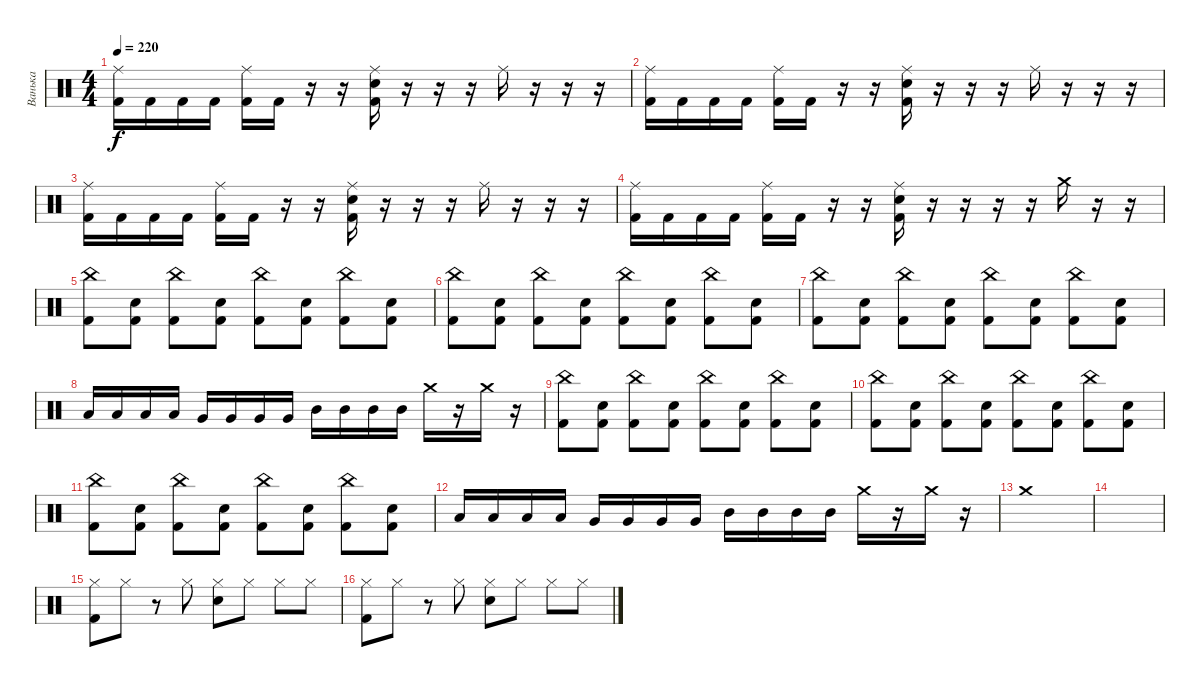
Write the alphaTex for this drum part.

\track ("Ванька" "Ванька") {instrument percussion}
\staff {score}
\articulation defaults
\ts (4 4)
\tempo 220
\clef neutral
\ks c
("Ride (middle)" "Kick (hit) 2").16{dy f} "Kick (hit) 2".16 "Kick (hit) 2".16 "Kick (hit) 2".16 ("Ride (middle)" "Kick (hit) 2").16 "Kick (hit) 2".16 r.16 r.16 ("Ride (middle)" "Snare (hit) 2" "Kick (hit) 2").16 r.16 r.16 r.16 "Ride (middle)".16 r.16 r.16 r.16 |
("Ride (middle)" "Kick (hit) 2").16 "Kick (hit) 2".16 "Kick (hit) 2".16 "Kick (hit) 2".16 ("Ride (middle)" "Kick (hit) 2").16 "Kick (hit) 2".16 r.16 r.16 ("Ride (middle)" "Snare (hit) 2" "Kick (hit) 2").16 r.16 r.16 r.16 "Ride (middle)".16 r.16 r.16 r.16 |
("Ride (middle)" "Kick (hit) 2").16 "Kick (hit) 2".16 "Kick (hit) 2".16 "Kick (hit) 2".16 ("Ride (middle)" "Kick (hit) 2").16 "Kick (hit) 2".16 r.16 r.16 ("Ride (middle)" "Snare (hit) 2" "Kick (hit) 2").16 r.16 r.16 r.16 "Ride (middle)".16 r.16 r.16 r.16 |
("Ride (middle)" "Kick (hit) 2").16 "Kick (hit) 2".16 "Kick (hit) 2".16 "Kick (hit) 2".16 ("Ride (middle)" "Kick (hit) 2").16 "Kick (hit) 2".16 r.16 r.16 ("Ride (middle)" "Snare (hit) 2" "Kick (hit) 2").16 r.16 r.16 r.16 r.16 "Crash medium (hit)".16 r.16 r.16 |
("China (hit)" "Kick (hit) 2").8 ("Snare (hit) 2" "Kick (hit) 2").8 ("China (hit)" "Kick (hit) 2").8 ("Snare (hit) 2" "Kick (hit) 2").8 ("China (hit)" "Kick (hit) 2").8 ("Snare (hit) 2" "Kick (hit) 2").8 ("China (hit)" "Kick (hit) 2").8 ("Snare (hit) 2" "Kick (hit) 2").8 |
("China (hit)" "Kick (hit) 2").8 ("Snare (hit) 2" "Kick (hit) 2").8 ("China (hit)" "Kick (hit) 2").8 ("Snare (hit) 2" "Kick (hit) 2").8 ("China (hit)" "Kick (hit) 2").8 ("Snare (hit) 2" "Kick (hit) 2").8 ("China (hit)" "Kick (hit) 2").8 ("Snare (hit) 2" "Kick (hit) 2").8 |
("China (hit)" "Kick (hit) 2").8 ("Snare (hit) 2" "Kick (hit) 2").8 ("China (hit)" "Kick (hit) 2").8 ("Snare (hit) 2" "Kick (hit) 2").8 ("China (hit)" "Kick (hit) 2").8 ("Snare (hit) 2" "Kick (hit) 2").8 ("China (hit)" "Kick (hit) 2").8 ("Snare (hit) 2" "Kick (hit) 2").8 |
"Low Floor Tom (hit)".16 "Low Floor Tom (hit)".16 "Low Floor Tom (hit)".16 "Low Floor Tom (hit)".16 "Very Low Tom (hit)".16 "Very Low Tom (hit)".16 "Very Low Tom (hit)".16 "Very Low Tom (hit)".16 "Mid Tom (hit)".16 "Mid Tom (hit)".16 "Mid Tom (hit)".16 "Mid Tom (hit)".16 "Crash medium (hit)".16 r.16 "Crash medium (hit)".16 r.16 |
("China (hit)" "Kick (hit) 2").8 ("Snare (hit) 2" "Kick (hit) 2").8 ("China (hit)" "Kick (hit) 2").8 ("Snare (hit) 2" "Kick (hit) 2").8 ("China (hit)" "Kick (hit) 2").8 ("Snare (hit) 2" "Kick (hit) 2").8 ("China (hit)" "Kick (hit) 2").8 ("Snare (hit) 2" "Kick (hit) 2").8 |
("China (hit)" "Kick (hit) 2").8 ("Snare (hit) 2" "Kick (hit) 2").8 ("China (hit)" "Kick (hit) 2").8 ("Snare (hit) 2" "Kick (hit) 2").8 ("China (hit)" "Kick (hit) 2").8 ("Snare (hit) 2" "Kick (hit) 2").8 ("China (hit)" "Kick (hit) 2").8 ("Snare (hit) 2" "Kick (hit) 2").8 |
("China (hit)" "Kick (hit) 2").8 ("Snare (hit) 2" "Kick (hit) 2").8 ("China (hit)" "Kick (hit) 2").8 ("Snare (hit) 2" "Kick (hit) 2").8 ("China (hit)" "Kick (hit) 2").8 ("Snare (hit) 2" "Kick (hit) 2").8 ("China (hit)" "Kick (hit) 2").8 ("Snare (hit) 2" "Kick (hit) 2").8 |
"Low Floor Tom (hit)".16 "Low Floor Tom (hit)".16 "Low Floor Tom (hit)".16 "Low Floor Tom (hit)".16 "Very Low Tom (hit)".16 "Very Low Tom (hit)".16 "Very Low Tom (hit)".16 "Very Low Tom (hit)".16 "Mid Tom (hit)".16 "Mid Tom (hit)".16 "Mid Tom (hit)".16 "Mid Tom (hit)".16 "Crash medium (hit)".16 r.16 "Crash medium (hit)".16 r.16 |
"Crash medium (hit)".1 |
|
("Hi-Hat (closed)" "Kick (hit) 2").8 "Hi-Hat (closed)".8 r.8 "Hi-Hat (closed)".8 ("Hi-Hat (closed)" "Snare (hit) 2").8 "Hi-Hat (closed)".8 "Hi-Hat (closed)".8 "Hi-Hat (closed)".8 |
("Hi-Hat (closed)" "Kick (hit) 2").8 "Hi-Hat (closed)".8 r.8 "Hi-Hat (closed)".8 ("Hi-Hat (closed)" "Snare (hit) 2").8 "Hi-Hat (closed)".8 "Hi-Hat (closed)".8 "Hi-Hat (closed)".8
